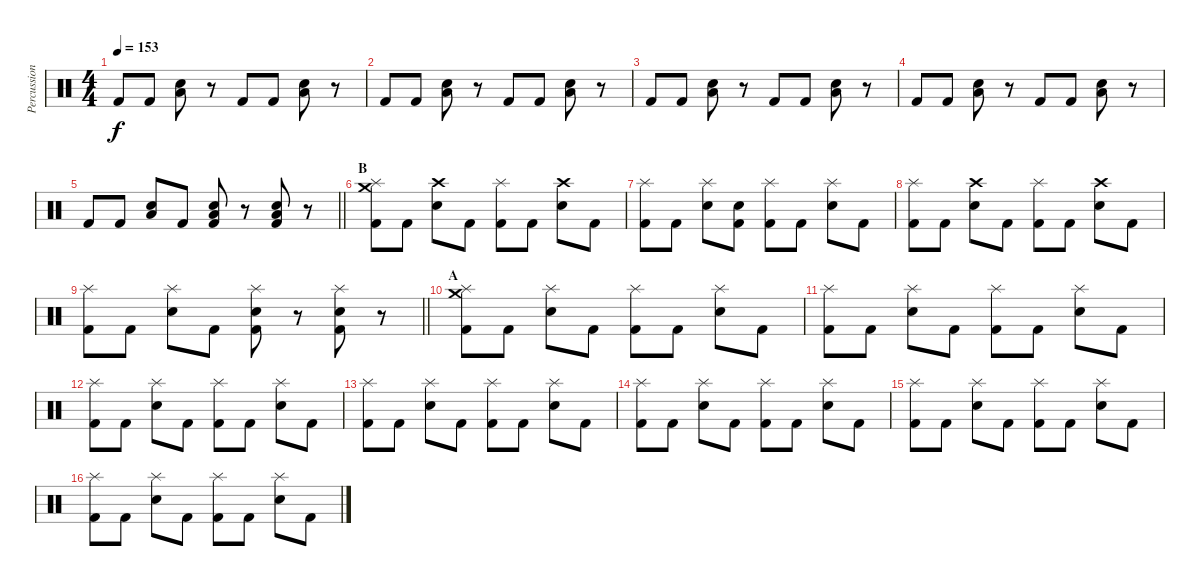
\track ("Percussion" "Percussion") {instrument percussion}
\staff {score}
\articulation defaults
\ts (4 4)
\tempo 153
\clef neutral
\ks c "Kick (hit) 2".8{dy f} "Kick (hit) 2".8
("Low Floor Tom (hit)" "Electric Snare (hit)").8 r.8 "Kick (hit) 2".8 "Kick (hit) 2".8 ("Low Floor Tom (hit)" "Electric Snare (hit)").8 r.8 |
"Kick (hit) 2".8 "Kick (hit) 2".8 ("Low Floor Tom (hit)" "Electric Snare (hit)").8 r.8 "Kick (hit) 2".8 "Kick (hit) 2".8 ("Low Floor Tom (hit)" "Electric Snare (hit)").8 r.8 |
"Kick (hit) 2".8 "Kick (hit) 2".8 ("Low Floor Tom (hit)" "Electric Snare (hit)").8 r.8 "Kick (hit) 2".8 "Kick (hit) 2".8 ("Low Floor Tom (hit)" "Electric Snare (hit)").8 r.8 |
"Kick (hit) 2".8 "Kick (hit) 2".8 ("Low Floor Tom (hit)" "Electric Snare (hit)").8 r.8 "Kick (hit) 2".8 "Kick (hit) 2".8 ("Low Floor Tom (hit)" "Electric Snare (hit)").8 r.8 |
\barLineRight lightlight "Kick (hit) 2".8 "Kick (hit) 2".8
("Low Floor Tom (hit)" "Electric Snare (hit)").8 "Kick (hit) 2".8 ("Low Floor Tom (hit)" "Electric Snare (hit)" "Kick (hit) 2").8 r.8 ("Low Floor Tom (hit)" "Electric Snare (hit)" "Kick (hit) 2").8 r.8 |
\section ("" "B")
("Splash (hit)" "Crash medium (hit)" "Kick (hit) 2").8 "Kick (hit) 2".8 ("Crash high (hit)" "Electric Snare (hit)").8 "Kick (hit) 2".8 ("Splash (hit)" "Kick (hit) 2").8 "Kick (hit) 2".8 ("Crash high (hit)" "Electric Snare (hit)").8 "Kick (hit) 2".8 |
("Splash (hit)" "Kick (hit) 2").8 "Kick (hit) 2".8 ("Splash (hit)" "Electric Snare (hit)").8 ("Electric Snare (hit)" "Kick (hit) 2").8 ("Splash (hit)" "Kick (hit) 2").8 "Kick (hit) 2".8 ("Splash (hit)" "Electric Snare (hit)").8 "Kick (hit) 2".8 |
("Splash (hit)" "Kick (hit) 2").8 "Kick (hit) 2".8 ("Crash high (hit)" "Electric Snare (hit)").8 "Kick (hit) 2".8 ("Splash (hit)" "Kick (hit) 2").8 "Kick (hit) 2".8 ("Crash high (hit)" "Electric Snare (hit)").8 "Kick (hit) 2".8 |
\barLineRight lightlight
("Splash (hit)" "Kick (hit) 2").8 "Kick (hit) 2".8 ("Splash (hit)" "Electric Snare (hit)").8 "Kick (hit) 2".8 ("Splash (hit)" "Electric Snare (hit)" "Kick (hit) 2").8 r.8 ("Splash (hit)" "Electric Snare (hit)" "Kick (hit) 2").8 r.8 |
\section ("" "A")
("Splash (hit)" "Crash medium (hit)" "Kick (hit) 2").8 "Kick (hit) 2".8 ("Splash (hit)" "Electric Snare (hit)").8 "Kick (hit) 2".8 ("Splash (hit)" "Kick (hit) 2").8 "Kick (hit) 2".8 ("Splash (hit)" "Electric Snare (hit)").8 "Kick (hit) 2".8 |
("Splash (hit)" "Kick (hit) 2").8 "Kick (hit) 2".8 ("Splash (hit)" "Electric Snare (hit)").8 "Kick (hit) 2".8 ("Splash (hit)" "Kick (hit) 2").8 "Kick (hit) 2".8 ("Splash (hit)" "Electric Snare (hit)").8 "Kick (hit) 2".8 |
("Splash (hit)" "Kick (hit) 2").8 "Kick (hit) 2".8 ("Splash (hit)" "Electric Snare (hit)").8 "Kick (hit) 2".8 ("Splash (hit)" "Kick (hit) 2").8 "Kick (hit) 2".8 ("Splash (hit)" "Electric Snare (hit)").8 "Kick (hit) 2".8 |
("Splash (hit)" "Kick (hit) 2").8 "Kick (hit) 2".8 ("Splash (hit)" "Electric Snare (hit)").8 "Kick (hit) 2".8 ("Splash (hit)" "Kick (hit) 2").8 "Kick (hit) 2".8 ("Splash (hit)" "Electric Snare (hit)").8 "Kick (hit) 2".8 |
("Splash (hit)" "Kick (hit) 2").8 "Kick (hit) 2".8 ("Splash (hit)" "Electric Snare (hit)").8 "Kick (hit) 2".8 ("Splash (hit)" "Kick (hit) 2").8 "Kick (hit) 2".8 ("Splash (hit)" "Electric Snare (hit)").8 "Kick (hit) 2".8 |
("Splash (hit)" "Kick (hit) 2").8 "Kick (hit) 2".8 ("Splash (hit)" "Electric Snare (hit)").8 "Kick (hit) 2".8 ("Splash (hit)" "Kick (hit) 2").8 "Kick (hit) 2".8 ("Splash (hit)" "Electric Snare (hit)").8 "Kick (hit) 2".8 |
("Splash (hit)" "Kick (hit) 2").8 "Kick (hit) 2".8 ("Splash (hit)" "Electric Snare (hit)").8 "Kick (hit) 2".8 ("Splash (hit)" "Kick (hit) 2").8 "Kick (hit) 2".8 ("Splash (hit)" "Electric Snare (hit)").8 "Kick (hit) 2".8
